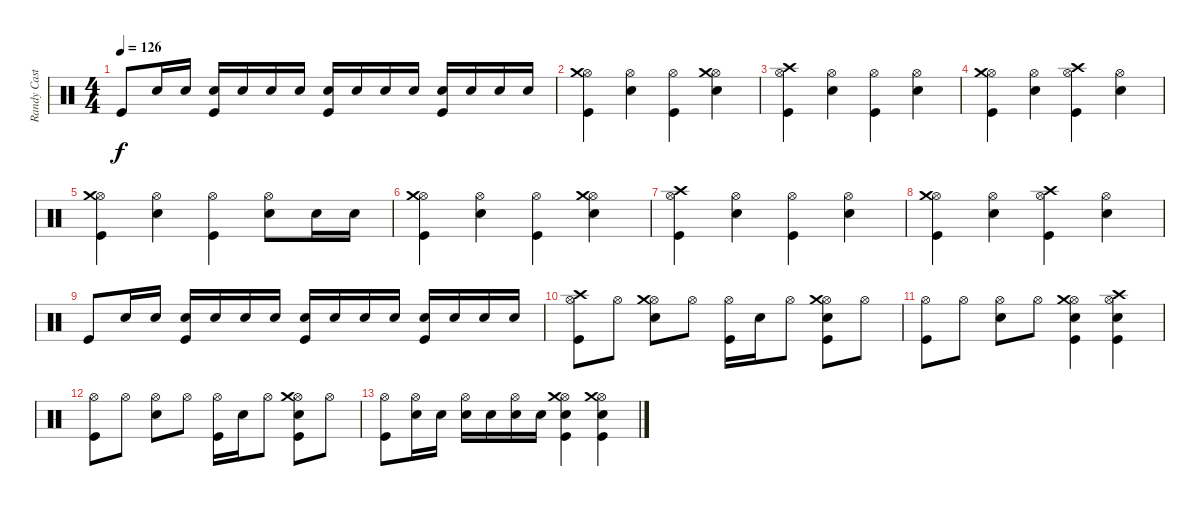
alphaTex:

\track ("Randy Castillo" "Randy Cast") {instrument percussion}
\staff {score}
\articulation defaults
\ts (4 4)
\tempo 126
\clef neutral
\ks c "Kick (hit)".8{dy f} "Snare (hit) 2".16 "Snare (hit) 2".16
("Kick (hit)" "Snare (hit) 2").16 "Snare (hit) 2".16 "Snare (hit) 2".16 "Snare (hit) 2".16 ("Kick (hit)" "Snare (hit) 2").16 "Snare (hit) 2".16 "Snare (hit) 2".16 "Snare (hit) 2".16 ("Kick (hit)" "Snare (hit) 2").16 "Snare (hit) 2".16 "Snare (hit) 2".16 "Snare (hit) 2".16 |
("Kick (hit)" "Hi-Hat (open)" "Crash medium (hit)").4 ("Snare (hit) 2" "Hi-Hat (open)").4 ("Kick (hit)" "Hi-Hat (open)").4 ("Snare (hit) 2" "Hi-Hat (open)" "Crash medium (hit)").4 |
("Kick (hit)" "Hi-Hat (open)" "Crash high (hit)").4 ("Snare (hit) 2" "Hi-Hat (open)").4 ("Kick (hit)" "Hi-Hat (open)").4 ("Snare (hit) 2" "Hi-Hat (open)").4 |
("Kick (hit)" "Hi-Hat (open)" "Crash medium (hit)").4 ("Snare (hit) 2" "Hi-Hat (open)").4 ("Kick (hit)" "Hi-Hat (open)" "Crash high (hit)").4 ("Snare (hit) 2" "Hi-Hat (open)").4 |
("Kick (hit)" "Hi-Hat (open)" "Crash medium (hit)").4 ("Snare (hit) 2" "Hi-Hat (open)").4 ("Kick (hit)" "Hi-Hat (open)").4 ("Snare (hit) 2" "Hi-Hat (open)").8 "Snare (hit) 2".16 "Snare (hit) 2".16 |
("Kick (hit)" "Hi-Hat (open)" "Crash medium (hit)").4 ("Snare (hit) 2" "Hi-Hat (open)").4 ("Kick (hit)" "Hi-Hat (open)").4 ("Snare (hit) 2" "Hi-Hat (open)" "Crash medium (hit)").4 |
("Kick (hit)" "Hi-Hat (open)" "Crash high (hit)").4 ("Snare (hit) 2" "Hi-Hat (open)").4 ("Kick (hit)" "Hi-Hat (open)").4 ("Snare (hit) 2" "Hi-Hat (open)").4 |
("Kick (hit)" "Hi-Hat (open)" "Crash medium (hit)").4 ("Snare (hit) 2" "Hi-Hat (open)").4 ("Kick (hit)" "Hi-Hat (open)" "Crash high (hit)").4 ("Snare (hit) 2" "Hi-Hat (open)").4 |
"Kick (hit)".8 "Snare (hit) 2".16 "Snare (hit) 2".16 ("Kick (hit)" "Snare (hit) 2").16 "Snare (hit) 2".16 "Snare (hit) 2".16 "Snare (hit) 2".16 ("Kick (hit)" "Snare (hit) 2").16 "Snare (hit) 2".16 "Snare (hit) 2".16 "Snare (hit) 2".16 ("Kick (hit)" "Snare (hit) 2").16 "Snare (hit) 2".16 "Snare (hit) 2".16 "Snare (hit) 2".16 |
("Kick (hit)" "Hi-Hat (open)" "Crash high (hit)").8 "Hi-Hat (open)".8 ("Snare (hit) 2" "Hi-Hat (open)" "Crash medium (hit)").8 "Hi-Hat (open)".8 ("Kick (hit)" "Hi-Hat (open)").16 "Snare (hit) 2".16 "Hi-Hat (open)".8 ("Kick (hit)" "Snare (hit) 2" "Hi-Hat (open)" "Crash medium (hit)").8 "Hi-Hat (open)".8 |
("Kick (hit)" "Hi-Hat (open)").8 "Hi-Hat (open)".8 ("Snare (hit) 2" "Hi-Hat (open)").8 "Hi-Hat (open)".8 ("Kick (hit)" "Snare (hit) 2" "Hi-Hat (open)" "Crash medium (hit)").4 ("Kick (hit)" "Snare (hit) 2" "Hi-Hat (open)" "Crash high (hit)").4 |
("Kick (hit)" "Hi-Hat (open)").8 "Hi-Hat (open)".8 ("Snare (hit) 2" "Hi-Hat (open)").8 "Hi-Hat (open)".8 ("Kick (hit)" "Hi-Hat (open)").16 "Snare (hit) 2".16 "Hi-Hat (open)".8 ("Kick (hit)" "Snare (hit) 2" "Hi-Hat (open)" "Crash medium (hit)").8 "Hi-Hat (open)".8 |
("Kick (hit)" "Hi-Hat (open)").8 ("Snare (hit) 2" "Hi-Hat (open)").16 "Snare (hit) 2".16 ("Snare (hit) 2" "Hi-Hat (open)").16 "Snare (hit) 2".16 ("Snare (hit) 2" "Hi-Hat (open)").16 "Snare (hit) 2".16 ("Kick (hit)" "Snare (hit) 2" "Hi-Hat (open)" "Crash medium (hit)").4 ("Kick (hit)" "Snare (hit) 2" "Hi-Hat (open)" "Crash medium (hit)").4
